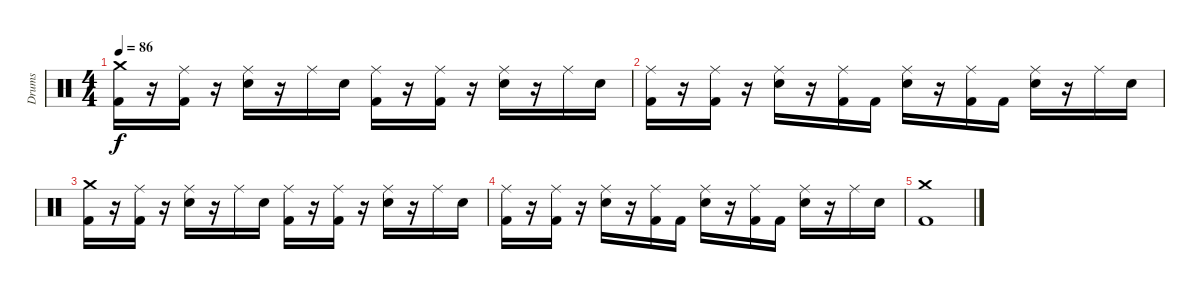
\track ("Drums" "Drums") {instrument percussion}
\staff {score}
\articulation defaults
\ts (4 4)
\tempo 86
\clef neutral
\ks c
("Crash medium (hit)" "Kick (hit) 2").16{dy f} r.16 ("Ride (middle)" "Kick (hit) 2").16 r.16 ("Ride (middle)" "Snare (hit) 2").16 r.16 "Ride (middle)".16 "Snare (hit) 2".16 ("Ride (middle)" "Kick (hit) 2").16 r.16 ("Ride (middle)" "Kick (hit) 2").16 r.16 ("Ride (middle)" "Snare (hit) 2").16 r.16 "Ride (middle)".16 "Snare (hit) 2".16 |
("Ride (middle)" "Kick (hit) 2").16 r.16 ("Ride (middle)" "Kick (hit) 2").16 r.16 ("Ride (middle)" "Snare (hit) 2").16 r.16 ("Ride (middle)" "Kick (hit) 2").16 "Kick (hit) 2".16 ("Ride (middle)" "Snare (hit) 2").16 r.16 ("Ride (middle)" "Kick (hit) 2").16 "Kick (hit) 2".16 ("Ride (middle)" "Snare (hit) 2").16 r.16 "Ride (middle)".16 "Snare (hit) 2".16 |
("Crash medium (hit)" "Kick (hit) 2").16 r.16 ("Ride (middle)" "Kick (hit) 2").16 r.16 ("Ride (middle)" "Snare (hit) 2").16 r.16 "Ride (middle)".16 "Snare (hit) 2".16 ("Ride (middle)" "Kick (hit) 2").16 r.16 ("Ride (middle)" "Kick (hit) 2").16 r.16 ("Ride (middle)" "Snare (hit) 2").16 r.16 "Ride (middle)".16 "Snare (hit) 2".16 |
("Ride (middle)" "Kick (hit) 2").16 r.16 ("Ride (middle)" "Kick (hit) 2").16 r.16 ("Ride (middle)" "Snare (hit) 2").16 r.16 ("Ride (middle)" "Kick (hit) 2").16 "Kick (hit) 2".16 ("Ride (middle)" "Snare (hit) 2").16 r.16 ("Ride (middle)" "Kick (hit) 2").16 "Kick (hit) 2".16 ("Ride (middle)" "Snare (hit) 2").16 r.16 "Ride (middle)".16 "Snare (hit) 2".16 |
("Crash medium (hit)" "Kick (hit) 2").1
